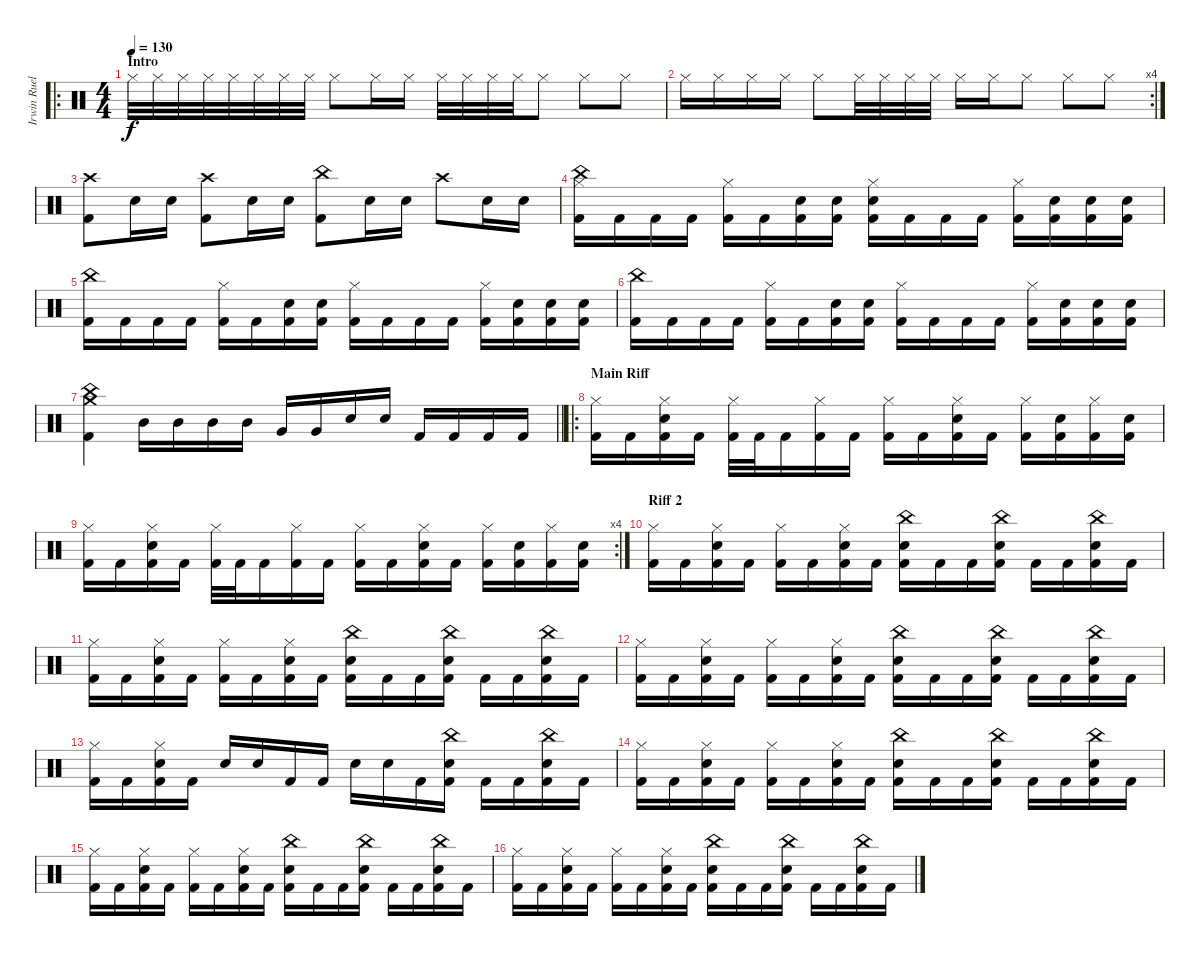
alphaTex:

\track ("Irwin Ruelas (Drums)" "Irwin Ruel") {instrument percussion}
\staff {score}
\articulation defaults
\ro
\ts (4 4)
\section ("" "Intro")
\tempo 130
\clef neutral
\ks c "Hi-Hat (closed)".32{dy f} "Hi-Hat (closed)".32 "Hi-Hat (closed)".32 "Hi-Hat (closed)".32 "Hi-Hat (closed)".32 "Hi-Hat (closed)".32 "Hi-Hat (closed)".32 "Hi-Hat (closed)".32 "Hi-Hat (closed)".8 "Hi-Hat (closed)".16 "Hi-Hat (closed)".16 "Hi-Hat (closed)".32 "Hi-Hat (closed)".32 "Hi-Hat (closed)".32 "Hi-Hat (closed)".32 "Hi-Hat (closed)".8 "Hi-Hat (closed)".8 "Hi-Hat (closed)".8
|
\rc 4 "Hi-Hat (closed)".16 "Hi-Hat (closed)".16 "Hi-Hat (closed)".16 "Hi-Hat (closed)".16 "Hi-Hat (closed)".8 "Hi-Hat (closed)".32 "Hi-Hat (closed)".32 "Hi-Hat (closed)".32 "Hi-Hat (closed)".32 "Hi-Hat (closed)".16 "Hi-Hat (closed)".16 "Hi-Hat (closed)".8 "Hi-Hat (closed)".8 "Hi-Hat (closed)".8
|
("Crash high (hit)" "Kick (hit) 2").8 "Snare (hit) 2".16 "Snare (hit) 2".16 ("Crash high (hit)" "Kick (hit) 2").8 "Snare (hit) 2".16 "Snare (hit) 2".16 ("China (hit)" "Kick (hit) 2").8 "Snare (hit) 2".16 "Snare (hit) 2".16 "Crash high (hit)".8 "Snare (hit) 2".16 "Snare (hit) 2".16 |
("Hi-Hat (closed)" "China (hit)" "Kick (hit) 2").16 "Kick (hit) 2".16 "Kick (hit) 2".16 "Kick (hit) 2".16 ("Hi-Hat (closed)" "Kick (hit) 2").16 "Kick (hit) 2".16 ("Snare (hit) 2" "Kick (hit) 2").16 ("Snare (hit) 2" "Kick (hit) 2").16 ("Hi-Hat (closed)" "Snare (hit) 2" "Kick (hit) 2").16 "Kick (hit) 2".16 "Kick (hit) 2".16 "Kick (hit) 2".16 ("Hi-Hat (closed)" "Kick (hit) 2").16 ("Snare (hit) 2" "Kick (hit) 2").16 ("Snare (hit) 2" "Kick (hit) 2").16 ("Snare (hit) 2" "Kick (hit) 2").16 |
("China (hit)" "Kick (hit) 2").16 "Kick (hit) 2".16 "Kick (hit) 2".16 "Kick (hit) 2".16 ("Hi-Hat (closed)" "Kick (hit) 2").16 "Kick (hit) 2".16 ("Snare (hit) 2" "Kick (hit) 2").16 ("Snare (hit) 2" "Kick (hit) 2").16 ("Hi-Hat (closed)" "Kick (hit) 2").16 "Kick (hit) 2".16 "Kick (hit) 2".16 "Kick (hit) 2".16 ("Hi-Hat (closed)" "Kick (hit) 2").16 ("Snare (hit) 2" "Kick (hit) 2").16 ("Snare (hit) 2" "Kick (hit) 2").16 ("Snare (hit) 2" "Kick (hit) 2").16 |
("China (hit)" "Kick (hit) 2").16 "Kick (hit) 2".16 "Kick (hit) 2".16 "Kick (hit) 2".16 ("Hi-Hat (closed)" "Kick (hit) 2").16 "Kick (hit) 2".16 ("Snare (hit) 2" "Kick (hit) 2").16 ("Snare (hit) 2" "Kick (hit) 2").16 ("Hi-Hat (closed)" "Kick (hit) 2").16 "Kick (hit) 2".16 "Kick (hit) 2".16 "Kick (hit) 2".16 ("Hi-Hat (closed)" "Kick (hit) 2").16 ("Snare (hit) 2" "Kick (hit) 2").16 ("Snare (hit) 2" "Kick (hit) 2").16 ("Snare (hit) 2" "Kick (hit) 2").16 |
\barLineRight lightlight
("Crash medium (hit)" "China (hit)" "Kick (hit) 2").4 "Mid Tom (hit)".16 "Mid Tom (hit)".16 "Mid Tom (hit)".16 "Mid Tom (hit)".16 "Very Low Tom (hit)".16 "Very Low Tom (hit)".16 "Snare (hit) 2".16 "Snare (hit) 2".16 "Kick (hit) 2".16 "Kick (hit) 2".16 "Kick (hit) 2".16 "Kick (hit) 2".16 |
\ro
\section ("" "Main Riff")
("Hi-Hat (closed)" "Kick (hit) 2").16 "Kick (hit) 2".16 ("Hi-Hat (closed)" "Snare (hit) 2" "Kick (hit) 2").16 "Kick (hit) 2".16 ("Hi-Hat (closed)" "Kick (hit) 2").32 "Kick (hit) 2".32 "Kick (hit) 2".16 ("Hi-Hat (closed)" "Kick (hit) 2").16 "Kick (hit) 2".16 ("Hi-Hat (closed)" "Kick (hit) 2").16 "Kick (hit) 2".16 ("Hi-Hat (closed)" "Snare (hit) 2" "Kick (hit) 2").16 "Kick (hit) 2".16 ("Hi-Hat (closed)" "Kick (hit) 2").16 ("Snare (hit) 2" "Kick (hit) 2").16 ("Hi-Hat (closed)" "Kick (hit) 2").16 ("Snare (hit) 2" "Kick (hit) 2").16 |
\rc 4
("Hi-Hat (closed)" "Kick (hit) 2").16 "Kick (hit) 2".16 ("Hi-Hat (closed)" "Snare (hit) 2" "Kick (hit) 2").16 "Kick (hit) 2".16 ("Hi-Hat (closed)" "Kick (hit) 2").32 "Kick (hit) 2".32 "Kick (hit) 2".16 ("Hi-Hat (closed)" "Kick (hit) 2").16 "Kick (hit) 2".16 ("Hi-Hat (closed)" "Kick (hit) 2").16 "Kick (hit) 2".16 ("Hi-Hat (closed)" "Snare (hit) 2" "Kick (hit) 2").16 "Kick (hit) 2".16 ("Hi-Hat (closed)" "Kick (hit) 2").16 ("Snare (hit) 2" "Kick (hit) 2").16 ("Hi-Hat (closed)" "Kick (hit) 2").16 ("Snare (hit) 2" "Kick (hit) 2").16 |
\section ("" "Riff 2")
("Hi-Hat (closed)" "Kick (hit) 2").16 "Kick (hit) 2".16 ("Hi-Hat (closed)" "Snare (hit) 2" "Kick (hit) 2").16 "Kick (hit) 2".16 ("Hi-Hat (closed)" "Kick (hit) 2").16 "Kick (hit) 2".16 ("Hi-Hat (closed)" "Snare (hit) 2" "Kick (hit) 2").16 "Kick (hit) 2".16 ("China (hit)" "Snare (hit) 2" "Kick (hit) 2").16 "Kick (hit) 2".16 "Kick (hit) 2".16 ("China (hit)" "Snare (hit) 2" "Kick (hit) 2").16 "Kick (hit) 2".16 "Kick (hit) 2".16 ("China (hit)" "Snare (hit) 2" "Kick (hit) 2").16 "Kick (hit) 2".16 |
("Hi-Hat (closed)" "Kick (hit) 2").16 "Kick (hit) 2".16 ("Hi-Hat (closed)" "Snare (hit) 2" "Kick (hit) 2").16 "Kick (hit) 2".16 ("Hi-Hat (closed)" "Kick (hit) 2").16 "Kick (hit) 2".16 ("Hi-Hat (closed)" "Snare (hit) 2" "Kick (hit) 2").16 "Kick (hit) 2".16 ("China (hit)" "Snare (hit) 2" "Kick (hit) 2").16 "Kick (hit) 2".16 "Kick (hit) 2".16 ("China (hit)" "Snare (hit) 2" "Kick (hit) 2").16 "Kick (hit) 2".16 "Kick (hit) 2".16 ("China (hit)" "Snare (hit) 2" "Kick (hit) 2").16 "Kick (hit) 2".16 |
("Hi-Hat (closed)" "Kick (hit) 2").16 "Kick (hit) 2".16 ("Hi-Hat (closed)" "Snare (hit) 2" "Kick (hit) 2").16 "Kick (hit) 2".16 ("Hi-Hat (closed)" "Kick (hit) 2").16 "Kick (hit) 2".16 ("Hi-Hat (closed)" "Snare (hit) 2" "Kick (hit) 2").16 "Kick (hit) 2".16 ("China (hit)" "Snare (hit) 2" "Kick (hit) 2").16 "Kick (hit) 2".16 "Kick (hit) 2".16 ("China (hit)" "Snare (hit) 2" "Kick (hit) 2").16 "Kick (hit) 2".16 "Kick (hit) 2".16 ("China (hit)" "Snare (hit) 2" "Kick (hit) 2").16 "Kick (hit) 2".16 |
("Hi-Hat (closed)" "Kick (hit) 2").16 "Kick (hit) 2".16 ("Hi-Hat (closed)" "Snare (hit) 2" "Kick (hit) 2").16 "Kick (hit) 2".16 "Snare (hit) 2".16 "Snare (hit) 2".16 "Kick (hit) 2".16 "Kick (hit) 2".16 "Snare (hit) 2".16 "Snare (hit) 2".16 "Kick (hit) 2".16 ("China (hit)" "Snare (hit) 2" "Kick (hit) 2").16 "Kick (hit) 2".16 "Kick (hit) 2".16 ("China (hit)" "Snare (hit) 2" "Kick (hit) 2").16 "Kick (hit) 2".16 |
("Hi-Hat (closed)" "Kick (hit) 2").16 "Kick (hit) 2".16 ("Hi-Hat (closed)" "Snare (hit) 2" "Kick (hit) 2").16 "Kick (hit) 2".16 ("Hi-Hat (closed)" "Kick (hit) 2").16 "Kick (hit) 2".16 ("Hi-Hat (closed)" "Snare (hit) 2" "Kick (hit) 2").16 "Kick (hit) 2".16 ("China (hit)" "Snare (hit) 2" "Kick (hit) 2").16 "Kick (hit) 2".16 "Kick (hit) 2".16 ("China (hit)" "Snare (hit) 2" "Kick (hit) 2").16 "Kick (hit) 2".16 "Kick (hit) 2".16 ("China (hit)" "Snare (hit) 2" "Kick (hit) 2").16 "Kick (hit) 2".16 |
("Hi-Hat (closed)" "Kick (hit) 2").16 "Kick (hit) 2".16 ("Hi-Hat (closed)" "Snare (hit) 2" "Kick (hit) 2").16 "Kick (hit) 2".16 ("Hi-Hat (closed)" "Kick (hit) 2").16 "Kick (hit) 2".16 ("Hi-Hat (closed)" "Snare (hit) 2" "Kick (hit) 2").16 "Kick (hit) 2".16 ("China (hit)" "Snare (hit) 2" "Kick (hit) 2").16 "Kick (hit) 2".16 "Kick (hit) 2".16 ("China (hit)" "Snare (hit) 2" "Kick (hit) 2").16 "Kick (hit) 2".16 "Kick (hit) 2".16 ("China (hit)" "Snare (hit) 2" "Kick (hit) 2").16 "Kick (hit) 2".16 |
("Hi-Hat (closed)" "Kick (hit) 2").16 "Kick (hit) 2".16 ("Hi-Hat (closed)" "Snare (hit) 2" "Kick (hit) 2").16 "Kick (hit) 2".16 ("Hi-Hat (closed)" "Kick (hit) 2").16 "Kick (hit) 2".16 ("Hi-Hat (closed)" "Snare (hit) 2" "Kick (hit) 2").16 "Kick (hit) 2".16 ("China (hit)" "Snare (hit) 2" "Kick (hit) 2").16 "Kick (hit) 2".16 "Kick (hit) 2".16 ("China (hit)" "Snare (hit) 2" "Kick (hit) 2").16 "Kick (hit) 2".16 "Kick (hit) 2".16 ("China (hit)" "Snare (hit) 2" "Kick (hit) 2").16 "Kick (hit) 2".16
